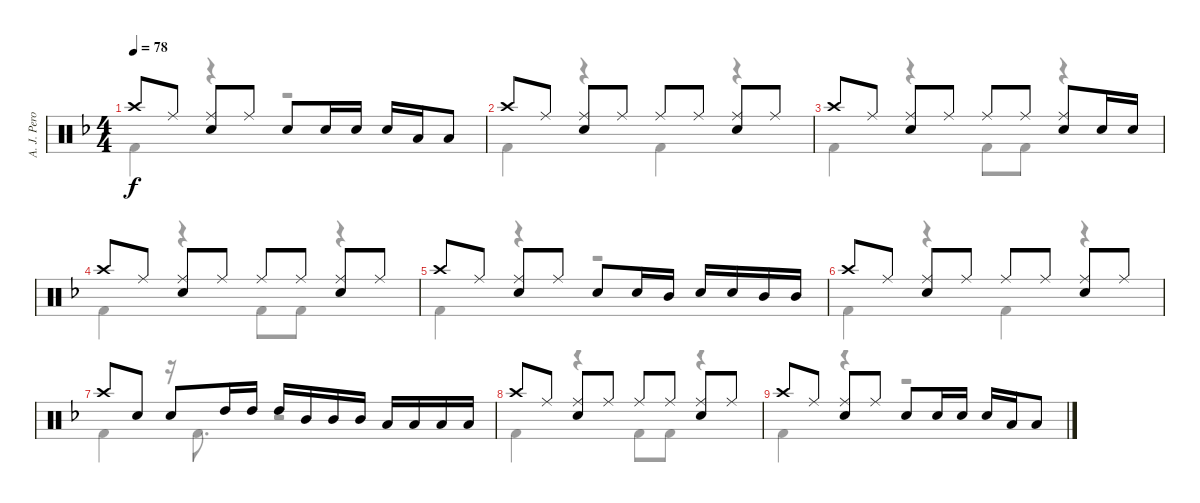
\track ("A. J. Pero" "A. J. Pero") {instrument percussion}
\staff {score}
\articulation defaults
\voice
\ts (4 4)
\tempo 78
\clef neutral
\ks dminor "Crash high (hit)".8{dy f} "Ride (middle)".8
("Ride (middle)" "Snare (hit) 2").8 "Ride (middle)".8 "Snare (hit) 2".8 "Snare (hit) 2".16 "Snare (hit) 2".16 "Snare (hit) 2".16 "Low Tom (hit)".16 "Low Tom (hit)".8 |
"Crash high (hit)".8 "Ride (middle)".8 ("Ride (middle)" "Snare (hit) 2").8 "Ride (middle)".8 "Ride (middle)".8 "Ride (middle)".8 ("Ride (middle)" "Snare (hit) 2").8 "Ride (middle)".8 |
"Crash high (hit)".8 "Ride (middle)".8 ("Ride (middle)" "Snare (hit) 2").8 "Ride (middle)".8 "Ride (middle)".8 "Ride (middle)".8 ("Ride (middle)" "Snare (hit) 2").8 "Snare (hit) 2".16 "Snare (hit) 2".16 |
"Crash high (hit)".8 "Ride (middle)".8 ("Ride (middle)" "Snare (hit) 2").8 "Ride (middle)".8 "Ride (middle)".8 "Ride (middle)".8 ("Ride (middle)" "Snare (hit) 2").8 "Ride (middle)".8 |
"Crash high (hit)".8 "Ride (middle)".8 ("Ride (middle)" "Snare (hit) 2").8 "Ride (middle)".8 "Snare (hit) 2".8 "Snare (hit) 2".16 "Mid Tom (hit)".16 "Snare (hit) 2".16 "Snare (hit) 2".16 "Mid Tom (hit)".16 "Mid Tom (hit)".16 |
"Crash high (hit)".8 "Ride (middle)".8 ("Ride (middle)" "Snare (hit) 2").8 "Ride (middle)".8 "Ride (middle)".8 "Ride (middle)".8 ("Ride (middle)" "Snare (hit) 2").8 "Ride (middle)".8 |
"Crash high (hit)".8 "Snare (hit) 2".8 "Snare (hit) 2".8 "High Tom (hit)".16 "High Tom (hit)".16 "High Tom (hit)".16 "Mid Tom (hit)".16 "Mid Tom (hit)".16 "Mid Tom (hit)".16 "Low Tom (hit)".16 "Low Tom (hit)".16 "Low Tom (hit)".16 "Low Tom (hit)".16 |
"Crash high (hit)".8 "Ride (middle)".8 ("Ride (middle)" "Snare (hit) 2").8 "Ride (middle)".8 "Ride (middle)".8 "Ride (middle)".8 ("Ride (middle)" "Snare (hit) 2").8 "Ride (middle)".8 |
"Crash high (hit)".8 "Ride (middle)".8 ("Ride (middle)" "Snare (hit) 2").8 "Ride (middle)".8 "Snare (hit) 2".8 "Snare (hit) 2".16 "Snare (hit) 2".16 "Snare (hit) 2".16 "Low Tom (hit)".16 "Low Tom (hit)".8
\voice
\clef neutral
\ottava regular
\simile none
\ks dminor "Kick (hit) 2".4{dy f}
r.4 r.2 |
"Kick (hit) 2".4 r.4 "Kick (hit) 2".4 r.4 |
"Kick (hit) 2".4 r.4 "Kick (hit) 2".8 "Kick (hit) 2".8 r.4 |
"Kick (hit) 2".4 r.4 "Kick (hit) 2".8 "Kick (hit) 2".8 r.4 |
"Kick (hit) 2".4 r.4 r.2 |
"Kick (hit) 2".4 r.4 "Kick (hit) 2".4 r.4 |
"Kick (hit) 2".4 r.16 "Kick (hit) 2".8{d} r.2 |
"Kick (hit) 2".4 r.4 "Kick (hit) 2".8 "Kick (hit) 2".8 r.4 |
"Kick (hit) 2".4 r.4 r.2
